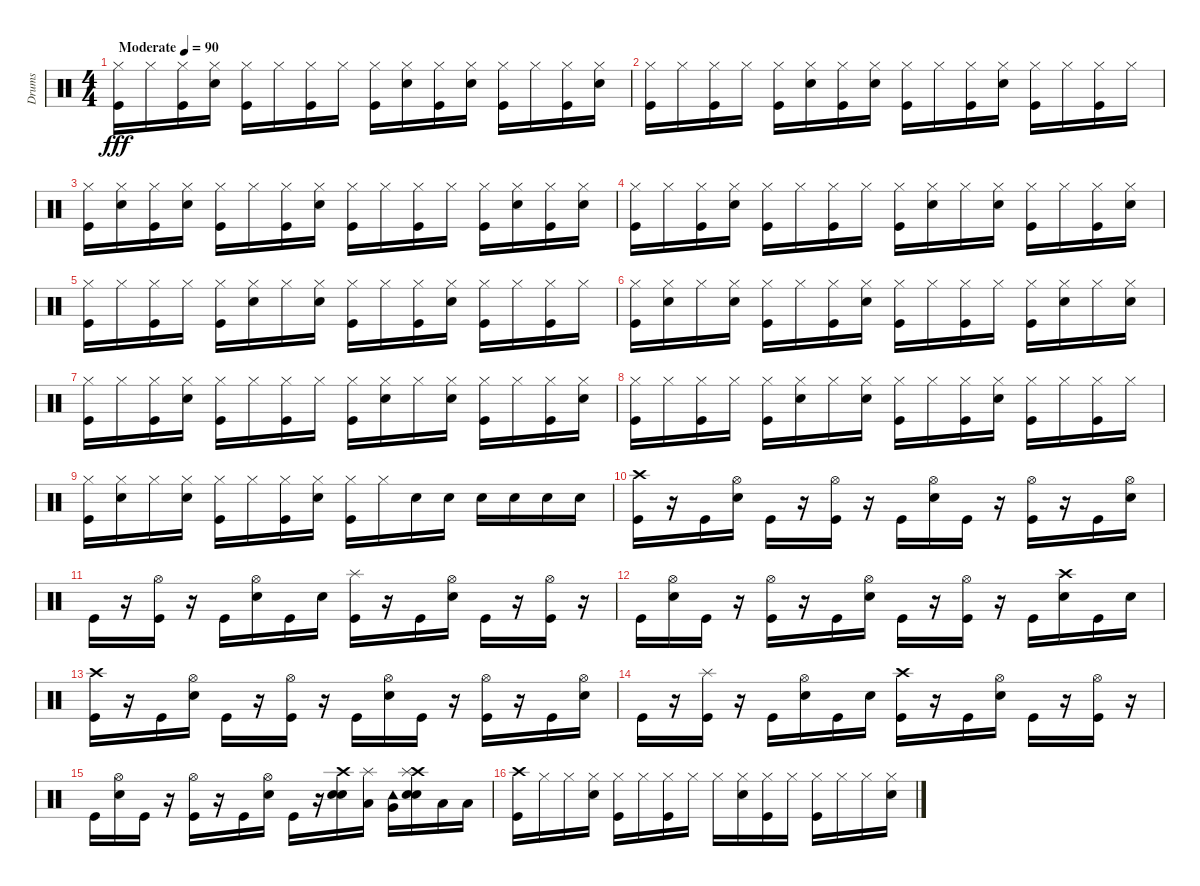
\track ("Drums" "Drums") {instrument percussion}
\staff {score}
\articulation defaults
\ts (4 4)
\tempo (90 "Moderate")
\clef neutral
\ks c
("Kick (hit)" "Hi-Hat (closed)").16{dy fff} "Hi-Hat (closed)".16 ("Kick (hit)" "Hi-Hat (closed)").16 ("Snare (hit) 2" "Hi-Hat (closed)").16 ("Kick (hit)" "Hi-Hat (closed)").16 "Hi-Hat (closed)".16 ("Kick (hit)" "Hi-Hat (closed)").16 "Hi-Hat (closed)".16 ("Kick (hit)" "Hi-Hat (closed)").16 ("Snare (hit) 2" "Hi-Hat (closed)").16 ("Kick (hit)" "Hi-Hat (closed)").16 ("Snare (hit) 2" "Hi-Hat (closed)").16 ("Kick (hit)" "Hi-Hat (closed)").16 "Hi-Hat (closed)".16 ("Kick (hit)" "Hi-Hat (closed)").16 ("Snare (hit) 2" "Hi-Hat (closed)").16 |
("Kick (hit)" "Hi-Hat (closed)").16 "Hi-Hat (closed)".16 ("Kick (hit)" "Hi-Hat (closed)").16 "Hi-Hat (closed)".16 ("Kick (hit)" "Hi-Hat (closed)").16 ("Snare (hit) 2" "Hi-Hat (closed)").16 ("Kick (hit)" "Hi-Hat (closed)").16 ("Snare (hit) 2" "Hi-Hat (closed)").16 ("Kick (hit)" "Hi-Hat (closed)").16 "Hi-Hat (closed)".16 ("Kick (hit)" "Hi-Hat (closed)").16 ("Snare (hit) 2" "Hi-Hat (closed)").16 ("Kick (hit)" "Hi-Hat (closed)").16 "Hi-Hat (closed)".16 ("Kick (hit)" "Hi-Hat (closed)").16 "Hi-Hat (closed)".16 |
("Kick (hit)" "Hi-Hat (closed)").16 ("Snare (hit) 2" "Hi-Hat (closed)").16 ("Kick (hit)" "Hi-Hat (closed)").16 ("Snare (hit) 2" "Hi-Hat (closed)").16 ("Kick (hit)" "Hi-Hat (closed)").16 "Hi-Hat (closed)".16 ("Kick (hit)" "Hi-Hat (closed)").16 ("Snare (hit) 2" "Hi-Hat (closed)").16 ("Kick (hit)" "Hi-Hat (closed)").16 "Hi-Hat (closed)".16 ("Kick (hit)" "Hi-Hat (closed)").16 "Hi-Hat (closed)".16 ("Kick (hit)" "Hi-Hat (closed)").16 ("Snare (hit) 2" "Hi-Hat (closed)").16 ("Kick (hit)" "Hi-Hat (closed)").16 ("Snare (hit) 2" "Hi-Hat (closed)").16 |
("Kick (hit)" "Hi-Hat (closed)").16 "Hi-Hat (closed)".16 ("Hi-Hat (closed)" "Kick (hit)").16 ("Hi-Hat (closed)" "Snare (hit) 2").16 ("Hi-Hat (closed)" "Kick (hit)").16 "Hi-Hat (closed)".16 ("Hi-Hat (closed)" "Kick (hit)").16 "Hi-Hat (closed)".16 ("Hi-Hat (closed)" "Kick (hit)").16 ("Hi-Hat (closed)" "Snare (hit) 2").16 "Hi-Hat (closed)".16 ("Snare (hit) 2" "Hi-Hat (closed)").16 ("Kick (hit)" "Hi-Hat (closed)").16 "Hi-Hat (closed)".16 ("Hi-Hat (closed)" "Kick (hit)").16 ("Hi-Hat (closed)" "Snare (hit) 2").16 |
("Hi-Hat (closed)" "Kick (hit)").16 "Hi-Hat (closed)".16 ("Hi-Hat (closed)" "Kick (hit)").16 "Hi-Hat (closed)".16 ("Hi-Hat (closed)" "Kick (hit)").16 ("Hi-Hat (closed)" "Snare (hit) 2").16 "Hi-Hat (closed)".16 ("Snare (hit) 2" "Hi-Hat (closed)").16 ("Kick (hit)" "Hi-Hat (closed)").16 "Hi-Hat (closed)".16 ("Hi-Hat (closed)" "Kick (hit)").16 ("Hi-Hat (closed)" "Snare (hit) 2").16 ("Hi-Hat (closed)" "Kick (hit)").16 "Hi-Hat (closed)".16 ("Hi-Hat (closed)" "Kick (hit)").16 "Hi-Hat (closed)".16 |
("Hi-Hat (closed)" "Kick (hit)").16 ("Hi-Hat (closed)" "Snare (hit) 2").16 "Hi-Hat (closed)".16 ("Snare (hit) 2" "Hi-Hat (closed)").16 ("Kick (hit)" "Hi-Hat (closed)").16 "Hi-Hat (closed)".16 ("Hi-Hat (closed)" "Kick (hit)").16 ("Hi-Hat (closed)" "Snare (hit) 2").16 ("Hi-Hat (closed)" "Kick (hit)").16 "Hi-Hat (closed)".16 ("Hi-Hat (closed)" "Kick (hit)").16 "Hi-Hat (closed)".16 ("Hi-Hat (closed)" "Kick (hit)").16 ("Hi-Hat (closed)" "Snare (hit) 2").16 "Hi-Hat (closed)".16 ("Snare (hit) 2" "Hi-Hat (closed)").16 |
("Kick (hit)" "Hi-Hat (closed)").16 "Hi-Hat (closed)".16 ("Hi-Hat (closed)" "Kick (hit)").16 ("Hi-Hat (closed)" "Snare (hit) 2").16 ("Hi-Hat (closed)" "Kick (hit)").16 "Hi-Hat (closed)".16 ("Hi-Hat (closed)" "Kick (hit)").16 "Hi-Hat (closed)".16 ("Hi-Hat (closed)" "Kick (hit)").16 ("Hi-Hat (closed)" "Snare (hit) 2").16 "Hi-Hat (closed)".16 ("Snare (hit) 2" "Hi-Hat (closed)").16 ("Kick (hit)" "Hi-Hat (closed)").16 "Hi-Hat (closed)".16 ("Hi-Hat (closed)" "Kick (hit)").16 ("Hi-Hat (closed)" "Snare (hit) 2").16 |
("Hi-Hat (closed)" "Kick (hit)").16 "Hi-Hat (closed)".16 ("Hi-Hat (closed)" "Kick (hit)").16 "Hi-Hat (closed)".16 ("Hi-Hat (closed)" "Kick (hit)").16 ("Hi-Hat (closed)" "Snare (hit) 2").16 "Hi-Hat (closed)".16 ("Snare (hit) 2" "Hi-Hat (closed)").16 ("Kick (hit)" "Hi-Hat (closed)").16 "Hi-Hat (closed)".16 ("Hi-Hat (closed)" "Kick (hit)").16 ("Hi-Hat (closed)" "Snare (hit) 2").16 ("Hi-Hat (closed)" "Kick (hit)").16 "Hi-Hat (closed)".16 ("Hi-Hat (closed)" "Kick (hit)").16 "Hi-Hat (closed)".16 |
("Hi-Hat (closed)" "Kick (hit)").16 ("Hi-Hat (closed)" "Snare (hit) 2").16 "Hi-Hat (closed)".16 ("Snare (hit) 2" "Hi-Hat (closed)").16 ("Kick (hit)" "Hi-Hat (closed)").16 "Hi-Hat (closed)".16 ("Hi-Hat (closed)" "Kick (hit)").16 ("Hi-Hat (closed)" "Snare (hit) 2").16 ("Hi-Hat (closed)" "Kick (hit)").16 "Hi-Hat (closed)".16 "Snare (hit) 2".16 "Snare (hit) 2".16 "Snare (hit) 2".16 "Snare (hit) 2".16 "Snare (hit) 2".16 "Snare (hit) 2".16 |
("Kick (hit)" "Crash high (hit)").16 r.16 "Kick (hit)".16 ("Hi-Hat (open)" "Snare (hit) 2").16 "Kick (hit)".16 r.16 ("Hi-Hat (open)" "Kick (hit)").16 r.16 "Kick (hit)".16 ("Hi-Hat (open)" "Snare (hit) 2").16 "Kick (hit)".16 r.16 ("Hi-Hat (open)" "Kick (hit)").16 r.16 "Kick (hit)".16 ("Hi-Hat (open)" "Snare (hit) 2").16 |
"Kick (hit)".16 r.16 ("Hi-Hat (open)" "Kick (hit)").16 r.16 "Kick (hit)".16 ("Hi-Hat (open)" "Snare (hit) 2").16 "Kick (hit)".16 "Snare (hit) 2".16 ("Splash (hit)" "Kick (hit)").16 r.16 "Kick (hit)".16 ("Hi-Hat (open)" "Snare (hit) 2").16 "Kick (hit)".16 r.16 ("Hi-Hat (open)" "Kick (hit)").16 r.16 |
"Kick (hit)".16 ("Hi-Hat (open)" "Snare (hit) 2").16 "Kick (hit)".16 r.16 ("Hi-Hat (open)" "Kick (hit)").16 r.16 "Kick (hit)".16 ("Hi-Hat (open)" "Snare (hit) 2").16 "Kick (hit)".16 r.16 ("Hi-Hat (open)" "Kick (hit)").16 r.16 "Kick (hit)".16 ("Crash high (hit)" "Snare (hit) 2").16 "Kick (hit)".16 "Snare (hit) 2".16 |
("Kick (hit)" "Crash high (hit)").16 r.16 "Kick (hit)".16 ("Hi-Hat (open)" "Snare (hit) 2").16 "Kick (hit)".16 r.16 ("Hi-Hat (open)" "Kick (hit)").16 r.16 "Kick (hit)".16 ("Hi-Hat (open)" "Snare (hit) 2").16 "Kick (hit)".16 r.16 ("Hi-Hat (open)" "Kick (hit)").16 r.16 "Kick (hit)".16 ("Hi-Hat (open)" "Snare (hit) 2").16 |
"Kick (hit)".16 r.16 ("Splash (hit)" "Kick (hit)").16 r.16 "Kick (hit)".16 ("Hi-Hat (open)" "Snare (hit) 2").16 "Kick (hit)".16 "Snare (hit) 2".16 ("Crash high (hit)" "Kick (hit)").16 r.16 "Kick (hit)".16 ("Hi-Hat (open)" "Snare (hit) 2").16 "Kick (hit)".16 r.16 ("Hi-Hat (open)" "Kick (hit)").16 r.16 |
"Kick (hit)".16 ("Hi-Hat (open)" "Snare (hit) 2").16 "Kick (hit)".16 r.16 ("Hi-Hat (open)" "Kick (hit)").16 r.16 "Kick (hit)".16 ("Hi-Hat (open)" "Snare (hit) 2").16 "Kick (hit)".16 r.16 ("Snare (hit) 2" "Crash high (hit)" "Snare (hit) 2").16 ("Low Tom (hit)" "Splash (hit)").16 ("Very Low Tom (hit)" "Tambourine (hit)").16 ("Snare (hit) 2" "Crash high (hit)" "Splash (hit)" "Snare (hit) 2").16 "Low Floor Tom (hit)".16 "Low Floor Tom (hit)".16 |
("Kick (hit)" "Crash high (hit)").16 "Hi-Hat (closed)".16 "Hi-Hat (closed)".16 ("Hi-Hat (closed)" "Snare (hit) 2").16 ("Hi-Hat (closed)" "Kick (hit)").16 "Hi-Hat (closed)".16 ("Hi-Hat (closed)" "Kick (hit)").16 "Hi-Hat (closed)".16 "Hi-Hat (closed)".16 ("Hi-Hat (closed)" "Snare (hit) 2").16 ("Hi-Hat (closed)" "Kick (hit)").16 "Hi-Hat (closed)".16 ("Kick (hit)" "Hi-Hat (closed)").16 "Hi-Hat (closed)".16 "Hi-Hat (closed)".16 ("Hi-Hat (closed)" "Snare (hit) 2").16
